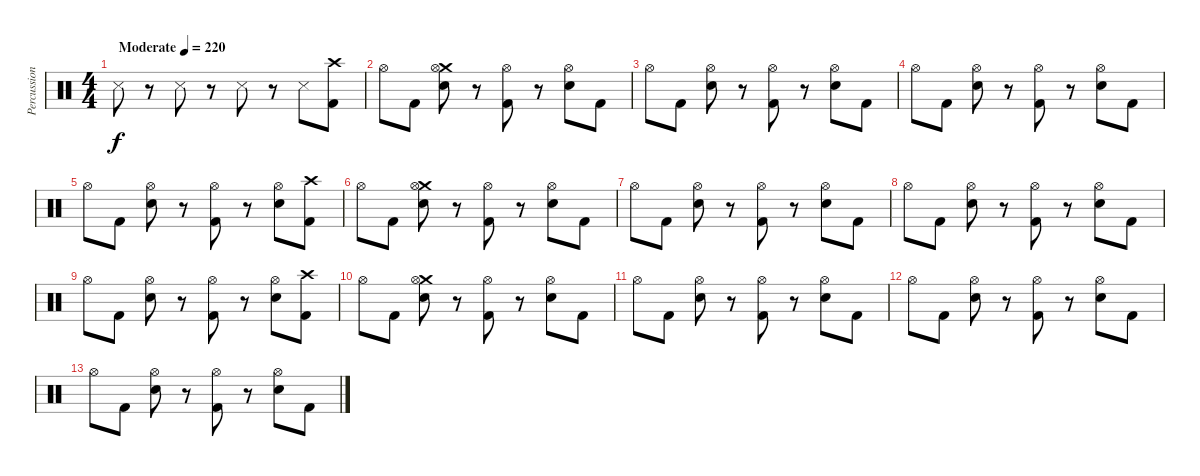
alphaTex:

\track ("Percussions" "Percussion") {instrument percussion}
\staff {score}
\articulation defaults
\ts (4 4)
\tempo (220 "Moderate")
\clef neutral
\ks c "Snare (side stick) 3".8{dy f}
r.8 "Snare (side stick) 3".8 r.8 "Snare (side stick) 3".8 r.8 "Snare (side stick) 3".8 ("Crash high (hit)" "Kick (hit) 2").8 |
"Hi-Hat (open)".8 "Kick (hit) 2".8 ("Crash medium (hit)" "Hi-Hat (open)" "Electric Snare (hit)").8 r.8 ("Hi-Hat (open)" "Kick (hit) 2").8 r.8 ("Hi-Hat (open)" "Electric Snare (hit)").8 "Kick (hit) 2".8 |
"Hi-Hat (open)".8 "Kick (hit) 2".8 ("Hi-Hat (open)" "Electric Snare (hit)").8 r.8 ("Hi-Hat (open)" "Kick (hit) 2").8 r.8 ("Hi-Hat (open)" "Electric Snare (hit)").8 "Kick (hit) 2".8 |
"Hi-Hat (open)".8 "Kick (hit) 2".8 ("Hi-Hat (open)" "Electric Snare (hit)").8 r.8 ("Hi-Hat (open)" "Kick (hit) 2").8 r.8 ("Hi-Hat (open)" "Electric Snare (hit)").8 "Kick (hit) 2".8 |
"Hi-Hat (open)".8 "Kick (hit) 2".8 ("Hi-Hat (open)" "Electric Snare (hit)").8 r.8 ("Hi-Hat (open)" "Kick (hit) 2").8 r.8 ("Hi-Hat (open)" "Electric Snare (hit)").8 ("Crash high (hit)" "Kick (hit) 2").8 |
"Hi-Hat (open)".8 "Kick (hit) 2".8 ("Crash medium (hit)" "Hi-Hat (open)" "Electric Snare (hit)").8 r.8 ("Hi-Hat (open)" "Kick (hit) 2").8 r.8 ("Hi-Hat (open)" "Electric Snare (hit)").8 "Kick (hit) 2".8 |
"Hi-Hat (open)".8 "Kick (hit) 2".8 ("Hi-Hat (open)" "Electric Snare (hit)").8 r.8 ("Hi-Hat (open)" "Kick (hit) 2").8 r.8 ("Hi-Hat (open)" "Electric Snare (hit)").8 "Kick (hit) 2".8 |
"Hi-Hat (open)".8 "Kick (hit) 2".8 ("Hi-Hat (open)" "Electric Snare (hit)").8 r.8 ("Hi-Hat (open)" "Kick (hit) 2").8 r.8 ("Hi-Hat (open)" "Electric Snare (hit)").8 "Kick (hit) 2".8 |
"Hi-Hat (open)".8 "Kick (hit) 2".8 ("Hi-Hat (open)" "Electric Snare (hit)").8 r.8 ("Hi-Hat (open)" "Kick (hit) 2").8 r.8 ("Hi-Hat (open)" "Electric Snare (hit)").8 ("Crash high (hit)" "Kick (hit) 2").8 |
"Hi-Hat (open)".8 "Kick (hit) 2".8 ("Crash medium (hit)" "Hi-Hat (open)" "Electric Snare (hit)").8 r.8 ("Hi-Hat (open)" "Kick (hit) 2").8 r.8 ("Hi-Hat (open)" "Electric Snare (hit)").8 "Kick (hit) 2".8 |
"Hi-Hat (open)".8 "Kick (hit) 2".8 ("Hi-Hat (open)" "Electric Snare (hit)").8 r.8 ("Hi-Hat (open)" "Kick (hit) 2").8 r.8 ("Hi-Hat (open)" "Electric Snare (hit)").8 "Kick (hit) 2".8 |
"Hi-Hat (open)".8 "Kick (hit) 2".8 ("Hi-Hat (open)" "Electric Snare (hit)").8 r.8 ("Hi-Hat (open)" "Kick (hit) 2").8 r.8 ("Hi-Hat (open)" "Electric Snare (hit)").8 "Kick (hit) 2".8 |
"Hi-Hat (open)".8 "Kick (hit) 2".8 ("Hi-Hat (open)" "Electric Snare (hit)").8 r.8 ("Hi-Hat (open)" "Kick (hit) 2").8 r.8 ("Hi-Hat (open)" "Electric Snare (hit)").8 "Kick (hit) 2".8
